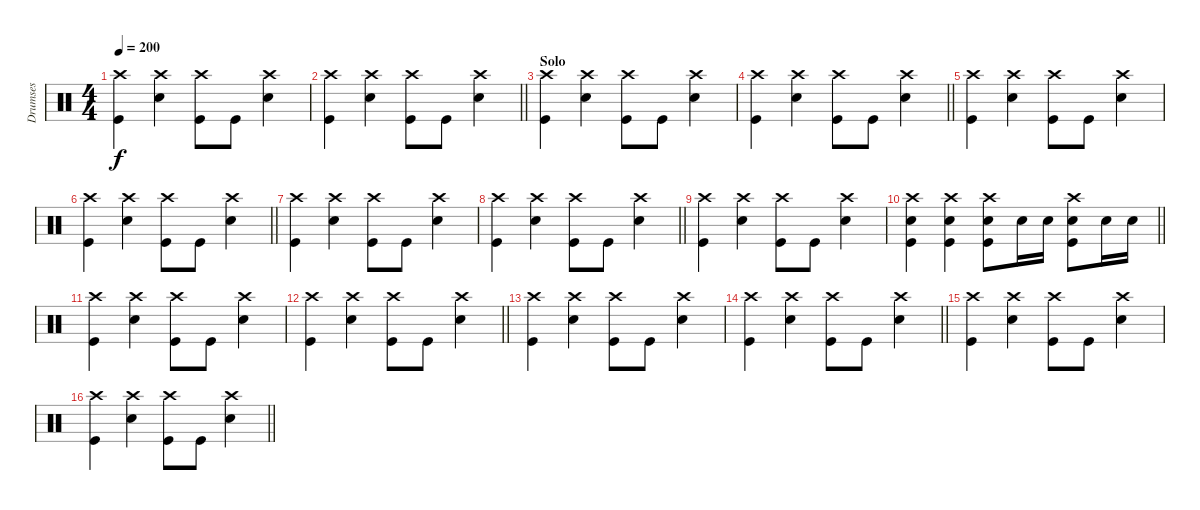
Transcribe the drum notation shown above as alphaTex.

\track ("Drumses" "Drumses") {instrument percussion}
\staff {score}
\articulation defaults
\ts (4 4)
\tempo 200
\clef neutral
\ks c
("Crash high (hit)" "Kick (hit)").4{dy f} ("Crash high (hit)" "Snare (hit) 2").4 ("Crash high (hit)" "Kick (hit)").8 "Kick (hit)".8 ("Crash high (hit)" "Snare (hit) 2").4 |
\barLineRight lightlight
("Crash high (hit)" "Kick (hit)").4 ("Crash high (hit)" "Snare (hit) 2").4 ("Crash high (hit)" "Kick (hit)").8 "Kick (hit)".8 ("Crash high (hit)" "Snare (hit) 2").4 |
\section ("" "Solo")
("Crash high (hit)" "Kick (hit)").4 ("Crash high (hit)" "Snare (hit) 2").4 ("Crash high (hit)" "Kick (hit)").8 "Kick (hit)".8 ("Crash high (hit)" "Snare (hit) 2").4 |
\barLineRight lightlight
("Crash high (hit)" "Kick (hit)").4 ("Crash high (hit)" "Snare (hit) 2").4 ("Crash high (hit)" "Kick (hit)").8 "Kick (hit)".8 ("Crash high (hit)" "Snare (hit) 2").4 |
("Crash high (hit)" "Kick (hit)").4 ("Crash high (hit)" "Snare (hit) 2").4 ("Crash high (hit)" "Kick (hit)").8 "Kick (hit)".8 ("Crash high (hit)" "Snare (hit) 2").4 |
\barLineRight lightlight
("Crash high (hit)" "Kick (hit)").4 ("Crash high (hit)" "Snare (hit) 2").4 ("Crash high (hit)" "Kick (hit)").8 "Kick (hit)".8 ("Crash high (hit)" "Snare (hit) 2").4 |
("Crash high (hit)" "Kick (hit)").4 ("Crash high (hit)" "Snare (hit) 2").4 ("Crash high (hit)" "Kick (hit)").8 "Kick (hit)".8 ("Crash high (hit)" "Snare (hit) 2").4 |
\barLineRight lightlight
("Crash high (hit)" "Kick (hit)").4 ("Crash high (hit)" "Snare (hit) 2").4 ("Crash high (hit)" "Kick (hit)").8 "Kick (hit)".8 ("Crash high (hit)" "Snare (hit) 2").4 |
("Crash high (hit)" "Kick (hit)").4 ("Crash high (hit)" "Snare (hit) 2").4 ("Crash high (hit)" "Kick (hit)").8 "Kick (hit)".8 ("Crash high (hit)" "Snare (hit) 2").4 |
\barLineRight lightlight
("Crash high (hit)" "Snare (hit) 2" "Kick (hit)").4 ("Crash high (hit)" "Snare (hit) 2" "Kick (hit)").4 ("Crash high (hit)" "Snare (hit) 2" "Kick (hit)").8 "Snare (hit) 2".16 "Snare (hit) 2".16 ("Crash high (hit)" "Snare (hit) 2" "Kick (hit)").8 "Snare (hit) 2".16 "Snare (hit) 2".16 |
("Crash high (hit)" "Kick (hit)").4 ("Crash high (hit)" "Snare (hit) 2").4 ("Crash high (hit)" "Kick (hit)").8 "Kick (hit)".8 ("Crash high (hit)" "Snare (hit) 2").4 |
\barLineRight lightlight
("Crash high (hit)" "Kick (hit)").4 ("Crash high (hit)" "Snare (hit) 2").4 ("Crash high (hit)" "Kick (hit)").8 "Kick (hit)".8 ("Crash high (hit)" "Snare (hit) 2").4 |
("Crash high (hit)" "Kick (hit)").4 ("Crash high (hit)" "Snare (hit) 2").4 ("Crash high (hit)" "Kick (hit)").8 "Kick (hit)".8 ("Crash high (hit)" "Snare (hit) 2").4 |
\barLineRight lightlight
("Crash high (hit)" "Kick (hit)").4 ("Crash high (hit)" "Snare (hit) 2").4 ("Crash high (hit)" "Kick (hit)").8 "Kick (hit)".8 ("Crash high (hit)" "Snare (hit) 2").4 |
("Crash high (hit)" "Kick (hit)").4 ("Crash high (hit)" "Snare (hit) 2").4 ("Crash high (hit)" "Kick (hit)").8 "Kick (hit)".8 ("Crash high (hit)" "Snare (hit) 2").4 |
\barLineRight lightlight
("Crash high (hit)" "Kick (hit)").4 ("Crash high (hit)" "Snare (hit) 2").4 ("Crash high (hit)" "Kick (hit)").8 "Kick (hit)".8 ("Crash high (hit)" "Snare (hit) 2").4
